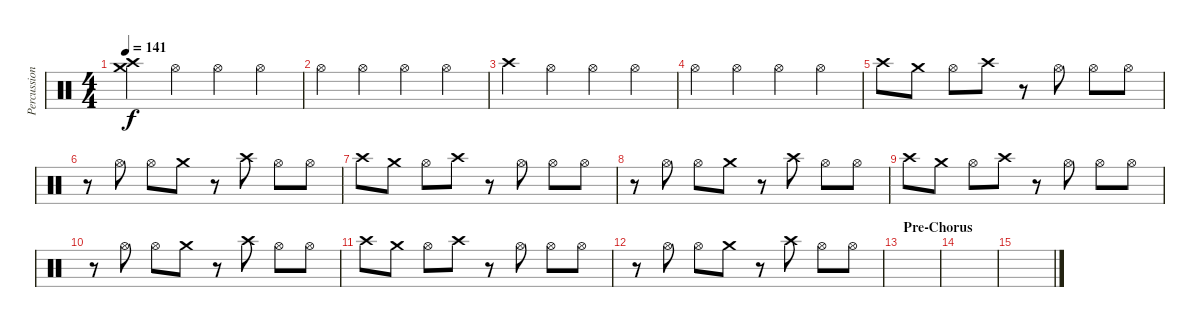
\track ("Percussion" "Percussion") {instrument percussion}
\staff {score}
\articulation defaults
\ts (4 4)
\tempo 141
\clef neutral
\ks c
("Crash high (hit)" "Crash medium (hit)").4{dy f} "Hi-Hat (open)".4 "Hi-Hat (open)".4 "Hi-Hat (open)".4 |
"Hi-Hat (open)".4 "Hi-Hat (open)".4 "Hi-Hat (open)".4 "Hi-Hat (open)".4 |
"Crash high (hit)".4 "Hi-Hat (open)".4 "Hi-Hat (open)".4 "Hi-Hat (open)".4 |
"Hi-Hat (open)".4 "Hi-Hat (open)".4 "Hi-Hat (open)".4 "Hi-Hat (open)".4 |
"Crash high (hit)".8 "Crash medium (hit)".8 "Hi-Hat (open)".8 "Crash high (hit)".8 r.8 "Hi-Hat (open)".8 "Hi-Hat (open)".8 "Hi-Hat (open)".8 |
r.8 "Hi-Hat (open)".8 "Hi-Hat (open)".8 "Crash medium (hit)".8 r.8 "Crash high (hit)".8 "Hi-Hat (open)".8 "Hi-Hat (open)".8 |
"Crash high (hit)".8 "Crash medium (hit)".8 "Hi-Hat (open)".8 "Crash high (hit)".8 r.8 "Hi-Hat (open)".8 "Hi-Hat (open)".8 "Hi-Hat (open)".8 |
r.8 "Hi-Hat (open)".8 "Hi-Hat (open)".8 "Crash medium (hit)".8 r.8 "Crash high (hit)".8 "Hi-Hat (open)".8 "Hi-Hat (open)".8 |
"Crash high (hit)".8 "Crash medium (hit)".8 "Hi-Hat (open)".8 "Crash high (hit)".8 r.8 "Hi-Hat (open)".8 "Hi-Hat (open)".8 "Hi-Hat (open)".8 |
r.8 "Hi-Hat (open)".8 "Hi-Hat (open)".8 "Crash medium (hit)".8 r.8 "Crash high (hit)".8 "Hi-Hat (open)".8 "Hi-Hat (open)".8 |
"Crash high (hit)".8 "Crash medium (hit)".8 "Hi-Hat (open)".8 "Crash high (hit)".8 r.8 "Hi-Hat (open)".8 "Hi-Hat (open)".8 "Hi-Hat (open)".8 |
r.8 "Hi-Hat (open)".8 "Hi-Hat (open)".8 "Crash medium (hit)".8 r.8 "Crash high (hit)".8 "Hi-Hat (open)".8 "Hi-Hat (open)".8 |
\section ("" "Pre-Chorus")
|
|
\section ("" "")
